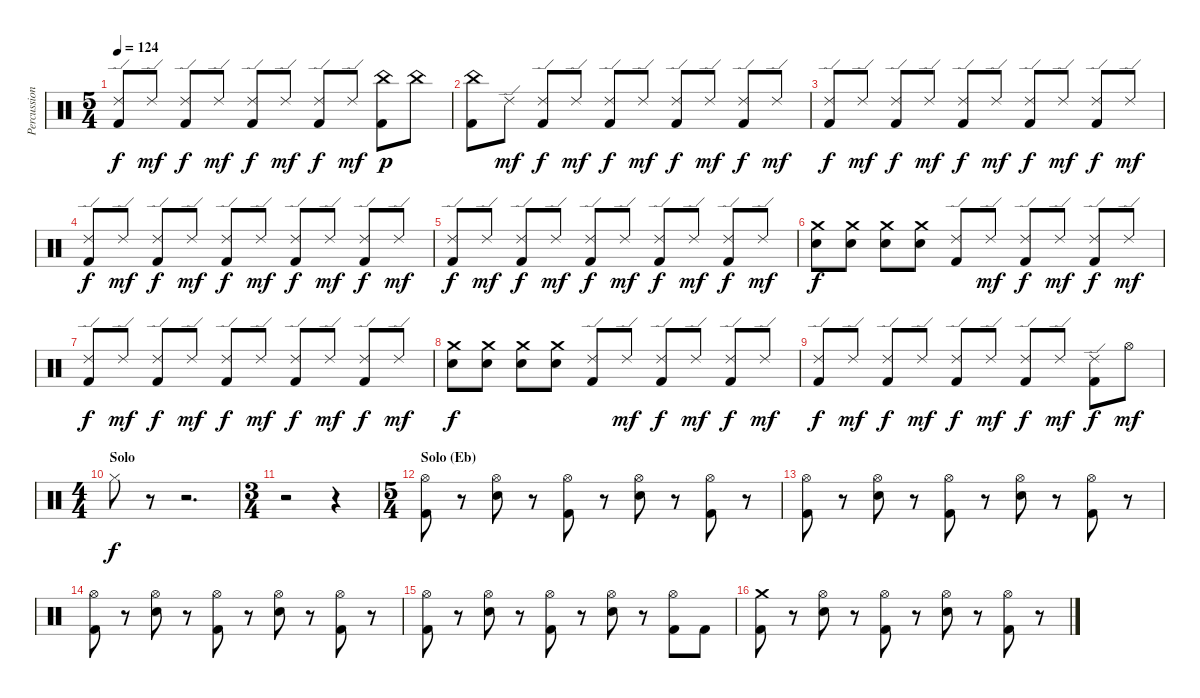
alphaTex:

\track ("Percussion" "Percussion") {instrument percussion}
\staff {score}
\articulation defaults
\ts (5 4)
\tempo 124
\clef neutral
\ks c
("Ride (edge) 2" "Kick (hit) 2").8{dy f} "Ride (edge) 2".8{dy mf} ("Ride (edge) 2" "Kick (hit) 2").8{dy f} "Ride (edge) 2".8{dy mf} ("Ride (edge) 2" "Kick (hit) 2").8{dy f} "Ride (edge) 2".8{dy mf} ("Ride (edge) 2" "Kick (hit) 2").8{dy f} "Ride (edge) 2".8{dy mf} ("China (hit)" "Kick (hit) 2").8{dy p} "China (hit)".8 |
("China (hit)" "Kick (hit) 2").8 "Ride (edge) 2".8{dy mf} ("Ride (edge) 2" "Kick (hit) 2").8{dy f} "Ride (edge) 2".8{dy mf} ("Ride (edge) 2" "Kick (hit) 2").8{dy f} "Ride (edge) 2".8{dy mf} ("Ride (edge) 2" "Kick (hit) 2").8{dy f} "Ride (edge) 2".8{dy mf} ("Ride (edge) 2" "Kick (hit) 2").8{dy f} "Ride (edge) 2".8{dy mf} |
("Ride (edge) 2" "Kick (hit) 2").8{dy f} "Ride (edge) 2".8{dy mf} ("Ride (edge) 2" "Kick (hit) 2").8{dy f} "Ride (edge) 2".8{dy mf} ("Ride (edge) 2" "Kick (hit) 2").8{dy f} "Ride (edge) 2".8{dy mf} ("Ride (edge) 2" "Kick (hit) 2").8{dy f} "Ride (edge) 2".8{dy mf} ("Ride (edge) 2" "Kick (hit) 2").8{dy f} "Ride (edge) 2".8{dy mf} |
("Ride (edge) 2" "Kick (hit) 2").8{dy f} "Ride (edge) 2".8{dy mf} ("Ride (edge) 2" "Kick (hit) 2").8{dy f} "Ride (edge) 2".8{dy mf} ("Ride (edge) 2" "Kick (hit) 2").8{dy f} "Ride (edge) 2".8{dy mf} ("Ride (edge) 2" "Kick (hit) 2").8{dy f} "Ride (edge) 2".8{dy mf} ("Ride (edge) 2" "Kick (hit) 2").8{dy f} "Ride (edge) 2".8{dy mf} |
("Ride (edge) 2" "Kick (hit) 2").8{dy f} "Ride (edge) 2".8{dy mf} ("Ride (edge) 2" "Kick (hit) 2").8{dy f} "Ride (edge) 2".8{dy mf} ("Ride (edge) 2" "Kick (hit) 2").8{dy f} "Ride (edge) 2".8{dy mf} ("Ride (edge) 2" "Kick (hit) 2").8{dy f} "Ride (edge) 2".8{dy mf} ("Ride (edge) 2" "Kick (hit) 2").8{dy f} "Ride (edge) 2".8{dy mf} |
("Crash medium (hit)" "Snare (hit) 2").8{dy f} ("Crash medium (hit)" "Snare (hit) 2").8 ("Crash medium (hit)" "Snare (hit) 2").8 ("Crash medium (hit)" "Snare (hit) 2").8 ("Ride (edge) 2" "Kick (hit) 2").8 "Ride (edge) 2".8{dy mf} ("Ride (edge) 2" "Kick (hit) 2").8{dy f} "Ride (edge) 2".8{dy mf} ("Ride (edge) 2" "Kick (hit) 2").8{dy f} "Ride (edge) 2".8{dy mf} |
("Ride (edge) 2" "Kick (hit) 2").8{dy f} "Ride (edge) 2".8{dy mf} ("Ride (edge) 2" "Kick (hit) 2").8{dy f} "Ride (edge) 2".8{dy mf} ("Ride (edge) 2" "Kick (hit) 2").8{dy f} "Ride (edge) 2".8{dy mf} ("Ride (edge) 2" "Kick (hit) 2").8{dy f} "Ride (edge) 2".8{dy mf} ("Ride (edge) 2" "Kick (hit) 2").8{dy f} "Ride (edge) 2".8{dy mf} |
("Crash medium (hit)" "Snare (hit) 2").8{dy f} ("Crash medium (hit)" "Snare (hit) 2").8 ("Crash medium (hit)" "Snare (hit) 2").8 ("Crash medium (hit)" "Snare (hit) 2").8 ("Ride (edge) 2" "Kick (hit) 2").8 "Ride (edge) 2".8{dy mf} ("Ride (edge) 2" "Kick (hit) 2").8{dy f} "Ride (edge) 2".8{dy mf} ("Ride (edge) 2" "Kick (hit) 2").8{dy f} "Ride (edge) 2".8{dy mf} |
("Ride (edge) 2" "Kick (hit) 2").8{dy f} "Ride (edge) 2".8{dy mf} ("Ride (edge) 2" "Kick (hit) 2").8{dy f} "Ride (edge) 2".8{dy mf} ("Ride (edge) 2" "Kick (hit) 2").8{dy f} "Ride (edge) 2".8{dy mf} ("Ride (edge) 2" "Kick (hit) 2").8{dy f} "Ride (edge) 2".8{dy mf} ("Ride (edge) 2" "Kick (hit) 2").8{dy f} "Hi-Hat (open)".8{dy mf} |
\ts (4 4)
\section ("" "Solo")
"Hi-Hat (closed)".8{dy f} r.8 r.2{d} |
\ts (3 4)
r.2 r.4 |
\ts (5 4)
\section ("" "Solo (Eb)")
("Hi-Hat (open)" "Kick (hit) 2").8 r.8 ("Hi-Hat (open)" "Snare (hit) 2").8 r.8 ("Hi-Hat (open)" "Kick (hit) 2").8 r.8 ("Hi-Hat (open)" "Snare (hit) 2").8 r.8 ("Hi-Hat (open)" "Kick (hit) 2").8 r.8 |
("Hi-Hat (open)" "Kick (hit) 2").8 r.8 ("Hi-Hat (open)" "Snare (hit) 2").8 r.8 ("Hi-Hat (open)" "Kick (hit) 2").8 r.8 ("Hi-Hat (open)" "Snare (hit) 2").8 r.8 ("Hi-Hat (open)" "Kick (hit) 2").8 r.8 |
("Hi-Hat (open)" "Kick (hit) 2").8 r.8 ("Hi-Hat (open)" "Snare (hit) 2").8 r.8 ("Hi-Hat (open)" "Kick (hit) 2").8 r.8 ("Hi-Hat (open)" "Snare (hit) 2").8 r.8 ("Hi-Hat (open)" "Kick (hit) 2").8 r.8 |
("Hi-Hat (open)" "Kick (hit) 2").8 r.8 ("Hi-Hat (open)" "Snare (hit) 2").8 r.8 ("Hi-Hat (open)" "Kick (hit) 2").8 r.8 ("Hi-Hat (open)" "Snare (hit) 2").8 r.8 ("Hi-Hat (open)" "Kick (hit) 2").8 "Kick (hit) 2".8 |
("Crash medium (hit)" "Kick (hit) 2").8 r.8 ("Hi-Hat (open)" "Snare (hit) 2").8 r.8 ("Hi-Hat (open)" "Kick (hit) 2").8 r.8 ("Hi-Hat (open)" "Snare (hit) 2").8 r.8 ("Hi-Hat (open)" "Kick (hit) 2").8 r.8
